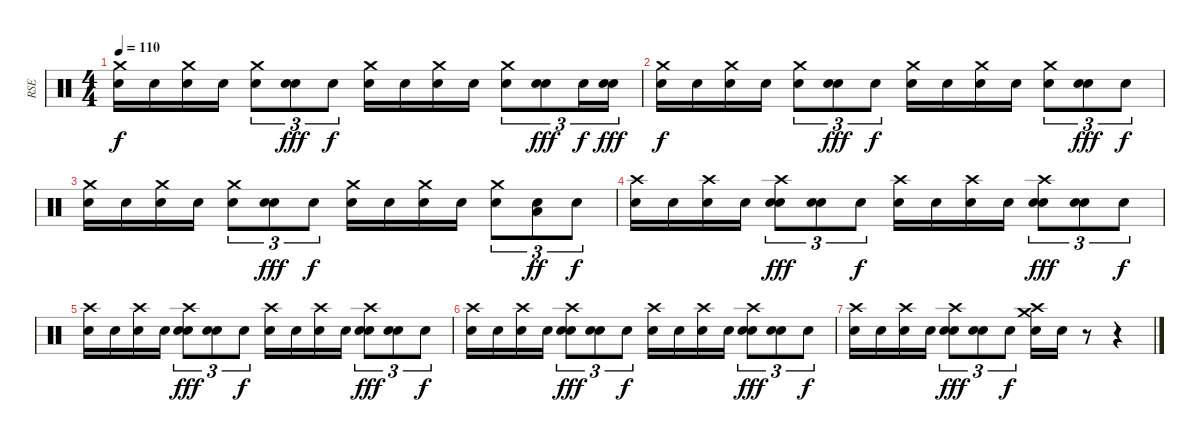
\track ("RSE" "RSE") {instrument percussion}
\staff
\articulation defaults
\ts (4 4)
\tempo 110
\clef neutral
\ks c
("Crash medium (hit)" "Snare (hit)").16{dy f} "Snare (hit)".16 ("Crash medium (hit)" "Snare (hit)").16 "Snare (hit)".16 ("Crash medium (hit)" "Snare (hit)").8{tu (3 2)} ("Electric Snare (hit)" "Snare (hit)").8{tu (3 2) dy fff} "Snare (hit)".8{tu (3 2) dy f} ("Crash medium (hit)" "Snare (hit)").16 "Snare (hit)".16 ("Crash medium (hit)" "Snare (hit)").16 "Snare (hit)".16 ("Crash medium (hit)" "Snare (hit)").8{tu (3 2)} ("Electric Snare (hit)" "Snare (hit)").8{tu (3 2) dy fff} "Snare (hit)".16{tu (3 2) dy f} ("Electric Snare (hit)" "Snare (hit)").16{tu (3 2) dy fff} |
("Crash medium (hit)" "Snare (hit)").16{dy f} "Snare (hit)".16 ("Crash medium (hit)" "Snare (hit)").16 "Snare (hit)".16 ("Crash medium (hit)" "Snare (hit)").8{tu (3 2)} ("Electric Snare (hit)" "Snare (hit)").8{tu (3 2) dy fff} "Snare (hit)".8{tu (3 2) dy f} ("Crash medium (hit)" "Snare (hit)").16 "Snare (hit)".16 ("Crash medium (hit)" "Snare (hit)").16 "Snare (hit)".16 ("Crash medium (hit)" "Snare (hit)").8{tu (3 2)} ("Electric Snare (hit)" "Snare (hit)").8{tu (3 2) dy fff} "Snare (hit)".8{tu (3 2) dy f} |
("Crash medium (hit)" "Snare (hit)").16 "Snare (hit)".16 ("Crash medium (hit)" "Snare (hit)").16 "Snare (hit)".16 ("Crash medium (hit)" "Snare (hit)").8{tu (3 2)} ("Electric Snare (hit)" "Snare (hit)").8{tu (3 2) dy fff} "Snare (hit)".8{tu (3 2) dy f} ("Crash medium (hit)" "Snare (hit)").16 "Snare (hit)".16 ("Crash medium (hit)" "Snare (hit)").16 "Snare (hit)".16 ("Crash medium (hit)" "Snare (hit)").8{tu (3 2)} ("Low Floor Tom (hit)" "Snare (hit)").8{tu (3 2) dy ff} "Snare (hit)".8{tu (3 2) dy f} |
("Crash high (hit)" "Snare (hit)").16 "Snare (hit)".16 ("Crash high (hit)" "Snare (hit)").16 "Snare (hit)".16 ("Crash high (hit)" "Electric Snare (hit)" "Snare (hit)").8{tu (3 2) dy fff} ("Electric Snare (hit)" "Snare (hit)").8{tu (3 2)} "Snare (hit)".8{tu (3 2) dy f} ("Crash high (hit)" "Snare (hit)").16 "Snare (hit)".16 ("Crash high (hit)" "Snare (hit)").16 "Snare (hit)".16 ("Crash high (hit)" "Electric Snare (hit)" "Snare (hit)").8{tu (3 2) dy fff} ("Electric Snare (hit)" "Snare (hit)").8{tu (3 2)} "Snare (hit)".8{tu (3 2) dy f} |
("Crash high (hit)" "Snare (hit)").16 "Snare (hit)".16 ("Crash high (hit)" "Snare (hit)").16 "Snare (hit)".16 ("Crash high (hit)" "Electric Snare (hit)" "Snare (hit)").8{tu (3 2) dy fff} ("Electric Snare (hit)" "Snare (hit)").8{tu (3 2)} "Snare (hit)".8{tu (3 2) dy f} ("Crash high (hit)" "Snare (hit)").16 "Snare (hit)".16 ("Crash high (hit)" "Snare (hit)").16 "Snare (hit)".16 ("Crash high (hit)" "Electric Snare (hit)" "Snare (hit)").8{tu (3 2) dy fff} ("Electric Snare (hit)" "Snare (hit)").8{tu (3 2)} "Snare (hit)".8{tu (3 2) dy f} |
("Crash high (hit)" "Snare (hit)").16 "Snare (hit)".16 ("Crash high (hit)" "Snare (hit)").16 "Snare (hit)".16 ("Crash high (hit)" "Electric Snare (hit)" "Snare (hit)").8{tu (3 2) dy fff} ("Electric Snare (hit)" "Snare (hit)").8{tu (3 2)} "Snare (hit)".8{tu (3 2) dy f} ("Crash high (hit)" "Snare (hit)").16 "Snare (hit)".16 ("Crash high (hit)" "Snare (hit)").16 "Snare (hit)".16 ("Crash high (hit)" "Electric Snare (hit)" "Snare (hit)").8{tu (3 2) dy fff} ("Electric Snare (hit)" "Snare (hit)").8{tu (3 2)} "Snare (hit)".8{tu (3 2) dy f} |
("Crash high (hit)" "Snare (hit)").16 "Snare (hit)".16 ("Crash high (hit)" "Snare (hit)").16 "Snare (hit)".16 ("Crash high (hit)" "Electric Snare (hit)" "Snare (hit)").8{tu (3 2) dy fff} ("Electric Snare (hit)" "Snare (hit)").8{tu (3 2)} "Snare (hit)".8{tu (3 2) dy f} ("Crash high (hit)" "Crash medium (hit)" "Snare (hit)").16 "Snare (hit)".16 r.8 r.4
